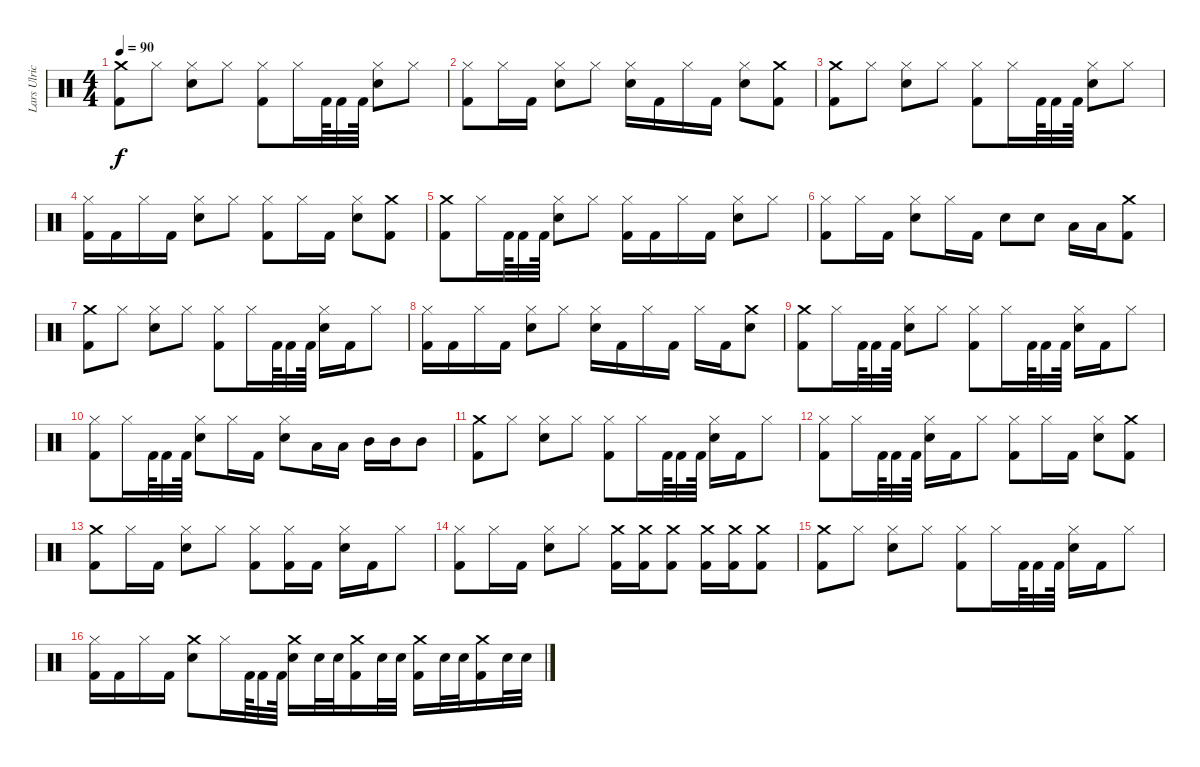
\track ("Lars Ulrich (Drums)" "Lars Ulric") {instrument percussion}
\staff {score}
\articulation defaults
\ts (4 4)
\tempo 90
\clef neutral
\ks c
("Crash medium (hit)" "Kick (hit) 2").8{dy f} "Hi-Hat (closed)".8 ("Snare (hit) 2" "Hi-Hat (closed)").8 "Hi-Hat (closed)".8 ("Hi-Hat (closed)" "Kick (hit) 2").8 "Hi-Hat (closed)".16 "Kick (hit) 2".64 "Kick (hit) 2".32 "Kick (hit) 2".64 ("Snare (hit) 2" "Hi-Hat (closed)").8 "Hi-Hat (closed)".8 |
("Hi-Hat (closed)" "Kick (hit) 2").8 "Hi-Hat (closed)".16 "Kick (hit) 2".16 ("Snare (hit) 2" "Hi-Hat (closed)").8 "Hi-Hat (closed)".8 ("Snare (hit) 2" "Hi-Hat (closed)").16 "Kick (hit) 2".16 "Hi-Hat (closed)".16 "Kick (hit) 2".16 ("Snare (hit) 2" "Hi-Hat (closed)").8 ("Crash medium (hit)" "Kick (hit) 2").8 |
("Kick (hit) 2" "Crash medium (hit)").8 "Hi-Hat (closed)".8 ("Snare (hit) 2" "Hi-Hat (closed)").8 "Hi-Hat (closed)".8 ("Hi-Hat (closed)" "Kick (hit) 2").8 "Hi-Hat (closed)".16 "Kick (hit) 2".64 "Kick (hit) 2".32 "Kick (hit) 2".64 ("Snare (hit) 2" "Hi-Hat (closed)").8 "Hi-Hat (closed)".8 |
("Kick (hit) 2" "Hi-Hat (closed)").16 "Kick (hit) 2".16 "Hi-Hat (closed)".16 "Kick (hit) 2".16 ("Snare (hit) 2" "Hi-Hat (closed)").8 "Hi-Hat (closed)".8 ("Kick (hit) 2" "Hi-Hat (closed)").8 "Hi-Hat (closed)".16 "Kick (hit) 2".16 ("Snare (hit) 2" "Hi-Hat (closed)").8 ("Kick (hit) 2" "Crash medium (hit)").8 |
("Crash medium (hit)" "Kick (hit) 2").8 "Hi-Hat (closed)".16 "Kick (hit) 2".64 "Kick (hit) 2".32 "Kick (hit) 2".64 ("Snare (hit) 2" "Hi-Hat (closed)").8 "Hi-Hat (closed)".8 ("Kick (hit) 2" "Hi-Hat (closed)").16 "Kick (hit) 2".16 "Hi-Hat (closed)".16 "Kick (hit) 2".16 ("Snare (hit) 2" "Hi-Hat (closed)").8 "Hi-Hat (closed)".8 |
("Kick (hit) 2" "Hi-Hat (closed)").8 "Hi-Hat (closed)".16 "Kick (hit) 2".16 ("Snare (hit) 2" "Hi-Hat (closed)").8 "Hi-Hat (closed)".16 "Kick (hit) 2".16 "Snare (hit) 2".8 "Snare (hit) 2".8 "Low Tom (hit)".16 "Low Tom (hit)".16 ("Crash medium (hit)" "Kick (hit) 2").8 |
("Crash medium (hit)" "Kick (hit) 2").8 "Hi-Hat (closed)".8 ("Snare (hit) 2" "Hi-Hat (closed)").8 "Hi-Hat (closed)".8 ("Hi-Hat (closed)" "Kick (hit) 2").8 "Hi-Hat (closed)".16 "Kick (hit) 2".64 "Kick (hit) 2".32 "Kick (hit) 2".64 ("Snare (hit) 2" "Hi-Hat (closed)").16 "Kick (hit) 2".16 "Hi-Hat (closed)".8 |
("Kick (hit) 2" "Hi-Hat (closed)").16 "Kick (hit) 2".16 "Hi-Hat (closed)".16 "Kick (hit) 2".16 ("Snare (hit) 2" "Hi-Hat (closed)").8 "Hi-Hat (closed)".8 ("Hi-Hat (closed)" "Snare (hit) 2").16 "Kick (hit) 2".16 "Hi-Hat (closed)".16 "Kick (hit) 2".16 "Hi-Hat (closed)".16 "Kick (hit) 2".16 ("Crash medium (hit)" "Snare (hit) 2").8 |
("Crash medium (hit)" "Kick (hit) 2").8 "Hi-Hat (closed)".16 "Kick (hit) 2".64 "Kick (hit) 2".32 "Kick (hit) 2".64 ("Snare (hit) 2" "Hi-Hat (closed)").8 "Hi-Hat (closed)".8 ("Hi-Hat (closed)" "Kick (hit) 2").8 "Hi-Hat (closed)".16 "Kick (hit) 2".64 "Kick (hit) 2".32 "Kick (hit) 2".64 ("Snare (hit) 2" "Hi-Hat (closed)").16 "Kick (hit) 2".16 "Hi-Hat (closed)".8 |
("Hi-Hat (closed)" "Kick (hit) 2").8 "Hi-Hat (closed)".16 "Kick (hit) 2".64 "Kick (hit) 2".32 "Kick (hit) 2".64 ("Snare (hit) 2" "Hi-Hat (closed)").8 "Hi-Hat (closed)".16 "Kick (hit) 2".16 ("Snare (hit) 2" "Hi-Hat (closed)").8 "Low Tom (hit)".16 "Low Tom (hit)".16 "Mid Tom (hit)".16 "Mid Tom (hit)".16 "Mid Tom (hit)".8 |
("Crash medium (hit)" "Kick (hit) 2").8 "Hi-Hat (closed)".8 ("Snare (hit) 2" "Hi-Hat (closed)").8 "Hi-Hat (closed)".8 ("Hi-Hat (closed)" "Kick (hit) 2").8 "Hi-Hat (closed)".16 "Kick (hit) 2".64 "Kick (hit) 2".32 "Kick (hit) 2".64 ("Snare (hit) 2" "Hi-Hat (closed)").16 "Kick (hit) 2".16 "Hi-Hat (closed)".8 |
("Hi-Hat (closed)" "Kick (hit) 2").8 "Hi-Hat (closed)".16 "Kick (hit) 2".64 "Kick (hit) 2".32 "Kick (hit) 2".64 ("Snare (hit) 2" "Hi-Hat (closed)").16 "Kick (hit) 2".16 "Hi-Hat (closed)".8 ("Hi-Hat (closed)" "Kick (hit) 2").8 "Hi-Hat (closed)".16 "Kick (hit) 2".16 ("Snare (hit) 2" "Hi-Hat (closed)").8 ("Crash medium (hit)" "Kick (hit) 2").8 |
("Kick (hit) 2" "Crash medium (hit)").8 "Hi-Hat (closed)".16 "Kick (hit) 2".16 ("Snare (hit) 2" "Hi-Hat (closed)").8 "Hi-Hat (closed)".8 ("Hi-Hat (closed)" "Kick (hit) 2").8 ("Hi-Hat (closed)" "Kick (hit) 2").16 "Kick (hit) 2".16 ("Snare (hit) 2" "Hi-Hat (closed)").16 "Kick (hit) 2".16 "Hi-Hat (closed)".8 |
("Hi-Hat (closed)" "Kick (hit) 2").8 "Hi-Hat (closed)".16 "Kick (hit) 2".16 ("Snare (hit) 2" "Hi-Hat (closed)").8 "Hi-Hat (closed)".8 ("Kick (hit) 2" "Crash medium (hit)").16 ("Kick (hit) 2" "Crash medium (hit)").16 ("Kick (hit) 2" "Crash medium (hit)").8 ("Kick (hit) 2" "Crash medium (hit)").16 ("Kick (hit) 2" "Crash medium (hit)").16 ("Kick (hit) 2" "Crash medium (hit)").8 |
("Crash medium (hit)" "Kick (hit) 2").8 "Hi-Hat (closed)".8 ("Snare (hit) 2" "Hi-Hat (closed)").8 "Hi-Hat (closed)".8 ("Hi-Hat (closed)" "Kick (hit) 2").8 "Hi-Hat (closed)".16 "Kick (hit) 2".64 "Kick (hit) 2".32 "Kick (hit) 2".64 ("Snare (hit) 2" "Hi-Hat (closed)").16 "Kick (hit) 2".16 "Hi-Hat (closed)".8 |
("Hi-Hat (closed)" "Kick (hit) 2").16 "Kick (hit) 2".16 "Hi-Hat (closed)".16 "Kick (hit) 2".16 ("Crash medium (hit)" "Snare (hit) 2").8 "Hi-Hat (closed)".16 "Kick (hit) 2".64 "Kick (hit) 2".32 "Kick (hit) 2".64 ("Snare (hit) 2" "Crash medium (hit)").16 "Snare (hit) 2".32 "Snare (hit) 2".32 ("Crash medium (hit)" "Kick (hit) 2").16 "Snare (hit) 2".32 "Snare (hit) 2".32 ("Crash medium (hit)" "Kick (hit) 2").16 "Snare (hit) 2".32 "Snare (hit) 2".32 ("Crash medium (hit)" "Kick (hit) 2").16 "Snare (hit) 2".32 "Snare (hit) 2".32
